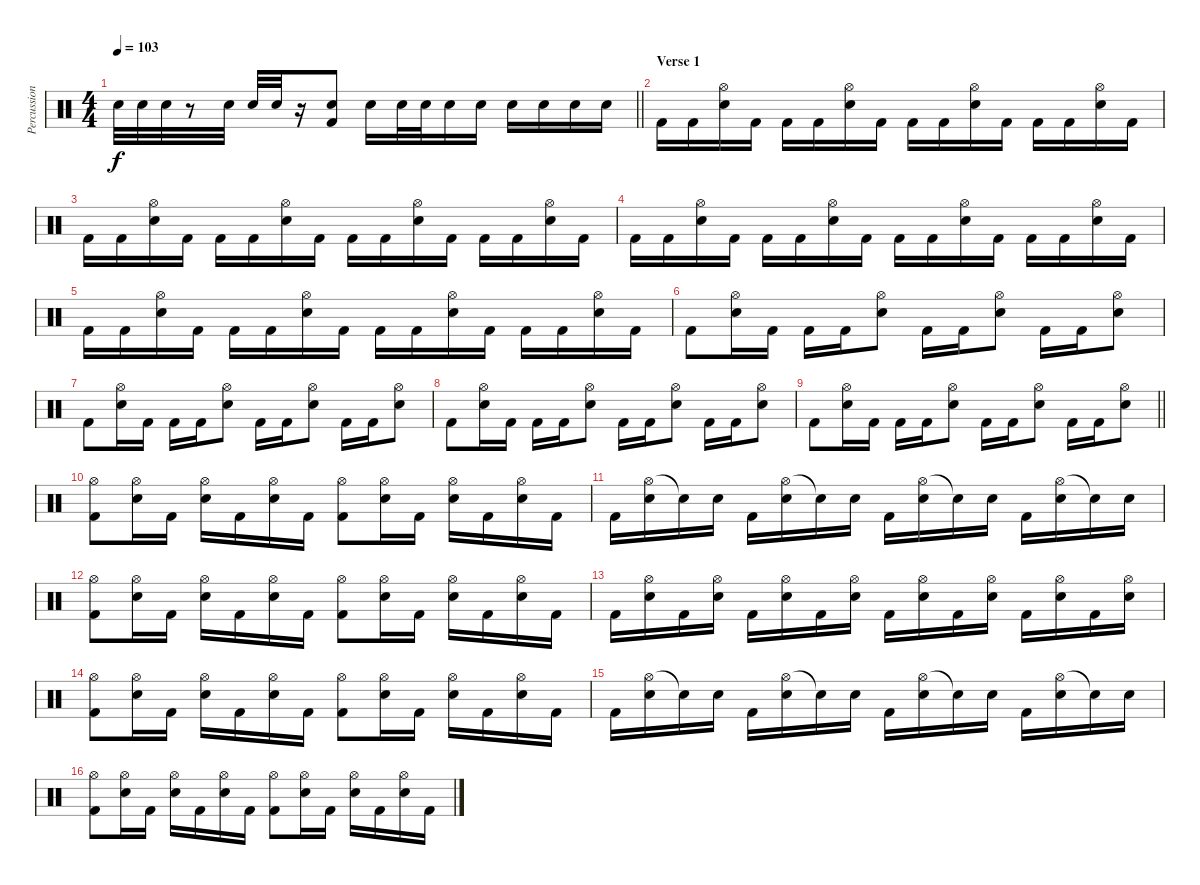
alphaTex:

\track ("Percussion" "Percussion") {instrument percussion}
\staff {score}
\articulation defaults
\ts (4 4)
\tempo 103
\clef neutral
\barLineRight lightlight
\ks aminor "Electric Snare (hit)".32{dy f} "Electric Snare (hit)".32 "Electric Snare (hit)".32
r.8 "Electric Snare (hit)".32 "Electric Snare (hit)".32 "Electric Snare (hit)".32 r.16 ("Electric Snare (hit)" "Kick (hit) 2").8 "Electric Snare (hit)".16 "Electric Snare (hit)".32 "Electric Snare (hit)".32 "Electric Snare (hit)".16 "Electric Snare (hit)".16 "Electric Snare (hit)".16 "Electric Snare (hit)".16 "Electric Snare (hit)".16 "Electric Snare (hit)".16 |
\section ("" "Verse 1")
"Kick (hit) 2".16 "Kick (hit) 2".16 ("Hi-Hat (open)" "Electric Snare (hit)").16 "Kick (hit) 2".16 "Kick (hit) 2".16 "Kick (hit) 2".16 ("Hi-Hat (open)" "Electric Snare (hit)").16 "Kick (hit) 2".16 "Kick (hit) 2".16 "Kick (hit) 2".16 ("Hi-Hat (open)" "Electric Snare (hit)").16 "Kick (hit) 2".16 "Kick (hit) 2".16 "Kick (hit) 2".16 ("Hi-Hat (open)" "Electric Snare (hit)").16 "Kick (hit) 2".16 |
"Kick (hit) 2".16 "Kick (hit) 2".16 ("Hi-Hat (open)" "Electric Snare (hit)").16 "Kick (hit) 2".16 "Kick (hit) 2".16 "Kick (hit) 2".16 ("Hi-Hat (open)" "Electric Snare (hit)").16 "Kick (hit) 2".16 "Kick (hit) 2".16 "Kick (hit) 2".16 ("Hi-Hat (open)" "Electric Snare (hit)").16 "Kick (hit) 2".16 "Kick (hit) 2".16 "Kick (hit) 2".16 ("Hi-Hat (open)" "Electric Snare (hit)").16 "Kick (hit) 2".16 |
"Kick (hit) 2".16 "Kick (hit) 2".16 ("Hi-Hat (open)" "Electric Snare (hit)").16 "Kick (hit) 2".16 "Kick (hit) 2".16 "Kick (hit) 2".16 ("Hi-Hat (open)" "Electric Snare (hit)").16 "Kick (hit) 2".16 "Kick (hit) 2".16 "Kick (hit) 2".16 ("Hi-Hat (open)" "Electric Snare (hit)").16 "Kick (hit) 2".16 "Kick (hit) 2".16 "Kick (hit) 2".16 ("Hi-Hat (open)" "Electric Snare (hit)").16 "Kick (hit) 2".16 |
"Kick (hit) 2".16 "Kick (hit) 2".16 ("Hi-Hat (open)" "Electric Snare (hit)").16 "Kick (hit) 2".16 "Kick (hit) 2".16 "Kick (hit) 2".16 ("Hi-Hat (open)" "Electric Snare (hit)").16 "Kick (hit) 2".16 "Kick (hit) 2".16 "Kick (hit) 2".16 ("Hi-Hat (open)" "Electric Snare (hit)").16 "Kick (hit) 2".16 "Kick (hit) 2".16 "Kick (hit) 2".16 ("Hi-Hat (open)" "Electric Snare (hit)").16 "Kick (hit) 2".16 |
"Kick (hit) 2".8 ("Hi-Hat (open)" "Electric Snare (hit)").16 "Kick (hit) 2".16 "Kick (hit) 2".16 "Kick (hit) 2".16 ("Hi-Hat (open)" "Electric Snare (hit)").8 "Kick (hit) 2".16 "Kick (hit) 2".16 ("Hi-Hat (open)" "Electric Snare (hit)").8 "Kick (hit) 2".16 "Kick (hit) 2".16 ("Hi-Hat (open)" "Electric Snare (hit)").8 |
"Kick (hit) 2".8 ("Hi-Hat (open)" "Electric Snare (hit)").16 "Kick (hit) 2".16 "Kick (hit) 2".16 "Kick (hit) 2".16 ("Hi-Hat (open)" "Electric Snare (hit)").8 "Kick (hit) 2".16 "Kick (hit) 2".16 ("Hi-Hat (open)" "Electric Snare (hit)").8 "Kick (hit) 2".16 "Kick (hit) 2".16 ("Hi-Hat (open)" "Electric Snare (hit)").8 |
"Kick (hit) 2".8 ("Hi-Hat (open)" "Electric Snare (hit)").16 "Kick (hit) 2".16 "Kick (hit) 2".16 "Kick (hit) 2".16 ("Hi-Hat (open)" "Electric Snare (hit)").8 "Kick (hit) 2".16 "Kick (hit) 2".16 ("Hi-Hat (open)" "Electric Snare (hit)").8 "Kick (hit) 2".16 "Kick (hit) 2".16 ("Hi-Hat (open)" "Electric Snare (hit)").8 |
\barLineRight lightlight "Kick (hit) 2".8
("Hi-Hat (open)" "Electric Snare (hit)").16 "Kick (hit) 2".16 "Kick (hit) 2".16 "Kick (hit) 2".16 ("Hi-Hat (open)" "Electric Snare (hit)").8 "Kick (hit) 2".16 "Kick (hit) 2".16 ("Hi-Hat (open)" "Electric Snare (hit)").8 "Kick (hit) 2".16 "Kick (hit) 2".16 ("Hi-Hat (open)" "Electric Snare (hit)").8 |
\section ("" "")
("Hi-Hat (open)" "Kick (hit) 2").8 ("Hi-Hat (open)" "Electric Snare (hit)").16 "Kick (hit) 2".16 ("Hi-Hat (open)" "Electric Snare (hit)").16 "Kick (hit) 2".16 ("Hi-Hat (open)" "Electric Snare (hit)").16 "Kick (hit) 2".16 ("Hi-Hat (open)" "Kick (hit) 2").8 ("Hi-Hat (open)" "Electric Snare (hit)").16 "Kick (hit) 2".16 ("Hi-Hat (open)" "Electric Snare (hit)").16 "Kick (hit) 2".16 ("Hi-Hat (open)" "Electric Snare (hit)").16 "Kick (hit) 2".16 |
"Kick (hit) 2".16 ("Hi-Hat (open)" "Electric Snare (hit)").16 "Snare (hit)"{t}.16 "Electric Snare (hit)".16 "Kick (hit) 2".16 ("Hi-Hat (open)" "Electric Snare (hit)").16 "Snare (hit)"{t}.16 "Electric Snare (hit)".16 "Kick (hit) 2".16 ("Hi-Hat (open)" "Electric Snare (hit)").16 "Snare (hit)"{t}.16 "Electric Snare (hit)".16 "Kick (hit) 2".16 ("Hi-Hat (open)" "Electric Snare (hit)").16 "Snare (hit)"{t}.16 "Electric Snare (hit)".16 |
("Hi-Hat (open)" "Kick (hit) 2").8 ("Hi-Hat (open)" "Electric Snare (hit)").16 "Kick (hit) 2".16 ("Hi-Hat (open)" "Electric Snare (hit)").16 "Kick (hit) 2".16 ("Hi-Hat (open)" "Electric Snare (hit)").16 "Kick (hit) 2".16 ("Hi-Hat (open)" "Kick (hit) 2").8 ("Hi-Hat (open)" "Electric Snare (hit)").16 "Kick (hit) 2".16 ("Hi-Hat (open)" "Electric Snare (hit)").16 "Kick (hit) 2".16 ("Hi-Hat (open)" "Electric Snare (hit)").16 "Kick (hit) 2".16 |
"Kick (hit) 2".16 ("Hi-Hat (open)" "Electric Snare (hit)").16 "Kick (hit) 2".16 ("Hi-Hat (open)" "Electric Snare (hit)").16 "Kick (hit) 2".16 ("Hi-Hat (open)" "Electric Snare (hit)").16 "Kick (hit) 2".16 ("Hi-Hat (open)" "Electric Snare (hit)").16 "Kick (hit) 2".16 ("Hi-Hat (open)" "Electric Snare (hit)").16 "Kick (hit) 2".16 ("Hi-Hat (open)" "Electric Snare (hit)").16 "Kick (hit) 2".16 ("Hi-Hat (open)" "Electric Snare (hit)").16 "Kick (hit) 2".16 ("Hi-Hat (open)" "Electric Snare (hit)").16 |
("Hi-Hat (open)" "Kick (hit) 2").8 ("Hi-Hat (open)" "Electric Snare (hit)").16 "Kick (hit) 2".16 ("Hi-Hat (open)" "Electric Snare (hit)").16 "Kick (hit) 2".16 ("Hi-Hat (open)" "Electric Snare (hit)").16 "Kick (hit) 2".16 ("Hi-Hat (open)" "Kick (hit) 2").8 ("Hi-Hat (open)" "Electric Snare (hit)").16 "Kick (hit) 2".16 ("Hi-Hat (open)" "Electric Snare (hit)").16 "Kick (hit) 2".16 ("Hi-Hat (open)" "Electric Snare (hit)").16 "Kick (hit) 2".16 |
"Kick (hit) 2".16 ("Hi-Hat (open)" "Electric Snare (hit)").16 "Snare (hit)"{t}.16 "Electric Snare (hit)".16 "Kick (hit) 2".16 ("Hi-Hat (open)" "Electric Snare (hit)").16 "Snare (hit)"{t}.16 "Electric Snare (hit)".16 "Kick (hit) 2".16 ("Hi-Hat (open)" "Electric Snare (hit)").16 "Snare (hit)"{t}.16 "Electric Snare (hit)".16 "Kick (hit) 2".16 ("Hi-Hat (open)" "Electric Snare (hit)").16 "Snare (hit)"{t}.16 "Electric Snare (hit)".16 |
("Hi-Hat (open)" "Kick (hit) 2").8 ("Hi-Hat (open)" "Electric Snare (hit)").16 "Kick (hit) 2".16 ("Hi-Hat (open)" "Electric Snare (hit)").16 "Kick (hit) 2".16 ("Hi-Hat (open)" "Electric Snare (hit)").16 "Kick (hit) 2".16 ("Hi-Hat (open)" "Kick (hit) 2").8 ("Hi-Hat (open)" "Electric Snare (hit)").16 "Kick (hit) 2".16 ("Hi-Hat (open)" "Electric Snare (hit)").16 "Kick (hit) 2".16 ("Hi-Hat (open)" "Electric Snare (hit)").16 "Kick (hit) 2".16
